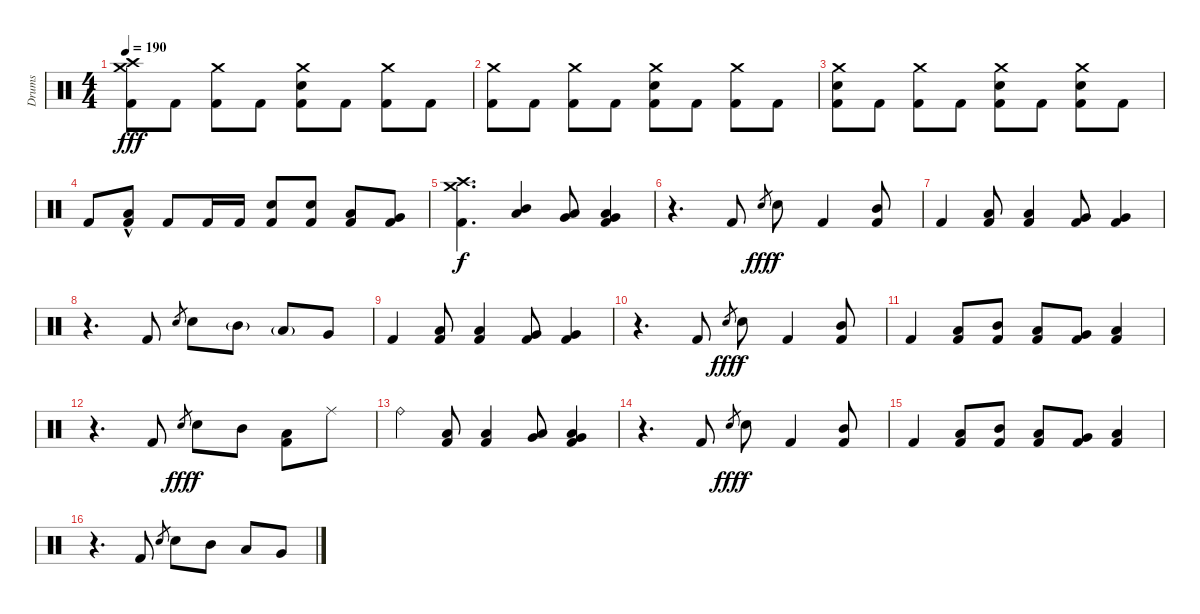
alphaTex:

\track ("Drums" "Drums") {instrument percussion}
\staff {score}
\articulation defaults
\ts (4 4)
\tempo 190
\clef neutral
\ks c
("Crash medium (hit)" "Crash high (hit)" "Kick (hit) 2").8{dy fff} "Kick (hit) 2".8 ("Crash medium (hit)" "Kick (hit) 2").8 "Kick (hit) 2".8 ("Crash medium (hit)" "Electric Snare (hit)" "Kick (hit) 2").8 "Kick (hit) 2".8 ("Crash medium (hit)" "Kick (hit) 2").8 "Kick (hit) 2".8 |
("Crash medium (hit)" "Kick (hit) 2").8 "Kick (hit) 2".8 ("Crash medium (hit)" "Kick (hit) 2").8 "Kick (hit) 2".8 ("Crash medium (hit)" "Electric Snare (hit)" "Kick (hit) 2").8 "Kick (hit) 2".8 ("Crash medium (hit)" "Kick (hit) 2").8 "Kick (hit) 2".8 |
("Crash medium (hit)" "Electric Snare (hit)" "Kick (hit) 2").8 "Kick (hit) 2".8 ("Crash medium (hit)" "Kick (hit) 2").8 "Kick (hit) 2".8 ("Crash medium (hit)" "Electric Snare (hit)" "Kick (hit) 2").8 "Kick (hit) 2".8 ("Crash medium (hit)" "Electric Snare (hit)" "Kick (hit) 2").8 "Kick (hit) 2".8 |
"Kick (hit) 2".8 ("Low Tom (hit)"{hac} "Kick (hit) 2").8 "Kick (hit) 2".8 "Kick (hit) 2".16 "Kick (hit) 2".16 ("Electric Snare (hit)" "Kick (hit) 2").8 ("Electric Snare (hit)" "Kick (hit) 2").8 ("Low Tom (hit)" "Kick (hit) 2").8 ("Very Low Tom (hit)" "Kick (hit) 2").8 |
("Crash medium (hit)" "Crash high (hit)" "Kick (hit) 2").4{d dy f} ("Mid Tom (hit)" "Low Tom (hit)").4 ("Low Tom (hit)" "Very Low Tom (hit)").8 ("Low Tom (hit)" "Very Low Tom (hit)" "Kick (hit) 2").4 |
r.4{d} "Kick (hit) 2".8 "Electric Snare (hit)".8{gr dy fff} "Electric Snare (hit)".8{dy f} "Kick (hit) 2".4 ("Mid Tom (hit)" "Kick (hit) 2").8 |
"Kick (hit) 2".4 ("Low Tom (hit)" "Kick (hit) 2").8 ("Low Tom (hit)" "Kick (hit) 2").4 ("Very Low Tom (hit)" "Kick (hit) 2").8 ("Very Low Tom (hit)" "Kick (hit) 2").4 |
r.4{d} "Kick (hit) 2".8 "Electric Snare (hit)".8{gr} "Electric Snare (hit)".8 "Mid Tom (hit)"{g}.8 "Low Tom (hit)"{g}.8 "Very Low Tom (hit)".8 |
"Kick (hit) 2".4 ("Low Tom (hit)" "Kick (hit) 2").8 ("Low Tom (hit)" "Kick (hit) 2").4 ("Very Low Tom (hit)" "Kick (hit) 2").8 ("Very Low Tom (hit)" "Kick (hit) 2").4 |
r.4{d} "Kick (hit) 2".8 "Electric Snare (hit)".8{gr dy fff} "Electric Snare (hit)".8{dy f} "Kick (hit) 2".4 ("Mid Tom (hit)" "Kick (hit) 2").8 |
"Kick (hit) 2".4 ("Low Tom (hit)" "Kick (hit) 2").8 ("Mid Tom (hit)" "Kick (hit) 2").8 ("Low Tom (hit)" "Kick (hit) 2").8 ("Very Low Tom (hit)" "Kick (hit) 2").8 ("Low Floor Tom (hit)" "Kick (hit) 2").4 |
r.4{d} "Kick (hit) 2".8 "Electric Snare (hit)".8{gr dy fff} "Electric Snare (hit)".8{dy f} "Mid Tom (hit)".8 ("Low Tom (hit)" "Kick (hit) 2").8 "Ride (middle)".8 |
"Ride (bell)".4 ("Low Tom (hit)" "Kick (hit) 2").8 ("Low Tom (hit)" "Kick (hit) 2").4 ("Low Tom (hit)" "Very Low Tom (hit)").8 ("Low Tom (hit)" "Very Low Tom (hit)" "Kick (hit) 2").4 |
r.4{d} "Kick (hit) 2".8 "Electric Snare (hit)".8{gr dy fff} "Electric Snare (hit)".8{dy f} "Kick (hit) 2".4 ("Mid Tom (hit)" "Kick (hit) 2").8 |
"Kick (hit) 2".4 ("Low Tom (hit)" "Kick (hit) 2").8 ("Mid Tom (hit)" "Kick (hit) 2").8 ("Low Tom (hit)" "Kick (hit) 2").8 ("Very Low Tom (hit)" "Kick (hit) 2").8 ("Low Floor Tom (hit)" "Kick (hit) 2").4 |
r.4{d} "Kick (hit) 2".8 "Electric Snare (hit)".8{gr} "Electric Snare (hit)".8 "Mid Tom (hit)".8 "Low Tom (hit)".8 "Very Low Tom (hit)".8
